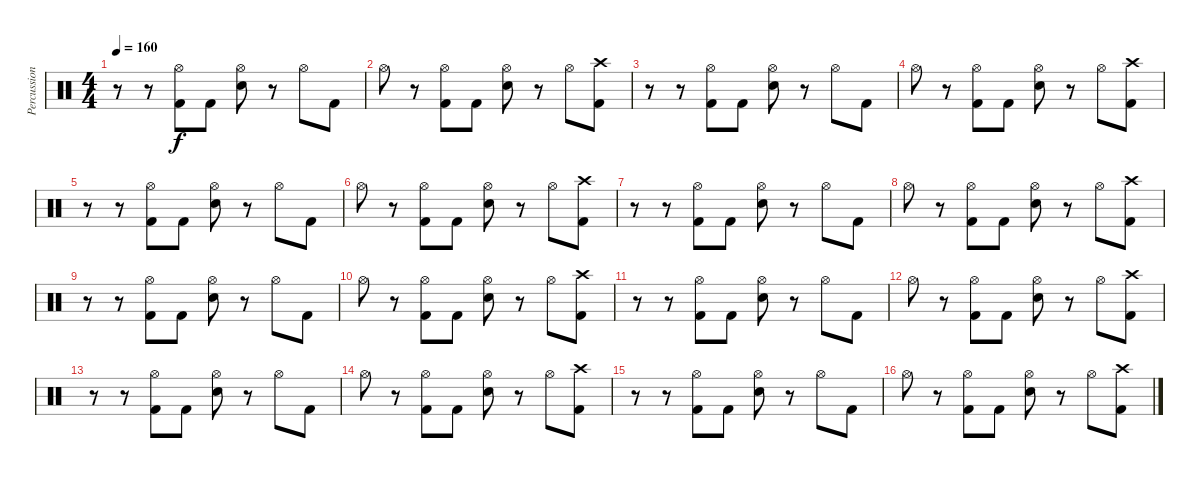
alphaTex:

\track ("Percussion" "Percussion") {instrument percussion}
\staff {score}
\articulation defaults
\ts (4 4)
\tempo 160
\clef neutral
\ks c
r.8{dy f} r.8 ("Hi-Hat (open)" "Kick (hit) 2").8 "Kick (hit) 2".8 ("Hi-Hat (open)" "Electric Snare (hit)").8 r.8 "Hi-Hat (open)".8 "Kick (hit) 2".8 |
"Hi-Hat (open)".8 r.8 ("Hi-Hat (open)" "Kick (hit) 2").8 "Kick (hit) 2".8 ("Hi-Hat (open)" "Electric Snare (hit)").8 r.8 "Hi-Hat (open)".8 ("Crash high (hit)" "Kick (hit) 2").8 |
r.8 r.8 ("Hi-Hat (open)" "Kick (hit) 2").8 "Kick (hit) 2".8 ("Hi-Hat (open)" "Electric Snare (hit)").8 r.8 "Hi-Hat (open)".8 "Kick (hit) 2".8 |
"Hi-Hat (open)".8 r.8 ("Hi-Hat (open)" "Kick (hit) 2").8 "Kick (hit) 2".8 ("Hi-Hat (open)" "Electric Snare (hit)").8 r.8 "Hi-Hat (open)".8 ("Crash high (hit)" "Kick (hit) 2").8 |
r.8 r.8 ("Hi-Hat (open)" "Kick (hit) 2").8 "Kick (hit) 2".8 ("Hi-Hat (open)" "Electric Snare (hit)").8 r.8 "Hi-Hat (open)".8 "Kick (hit) 2".8 |
"Hi-Hat (open)".8 r.8 ("Hi-Hat (open)" "Kick (hit) 2").8 "Kick (hit) 2".8 ("Hi-Hat (open)" "Electric Snare (hit)").8 r.8 "Hi-Hat (open)".8 ("Crash high (hit)" "Kick (hit) 2").8 |
r.8 r.8 ("Hi-Hat (open)" "Kick (hit) 2").8 "Kick (hit) 2".8 ("Hi-Hat (open)" "Electric Snare (hit)").8 r.8 "Hi-Hat (open)".8 "Kick (hit) 2".8 |
"Hi-Hat (open)".8 r.8 ("Hi-Hat (open)" "Kick (hit) 2").8 "Kick (hit) 2".8 ("Hi-Hat (open)" "Electric Snare (hit)").8 r.8 "Hi-Hat (open)".8 ("Crash high (hit)" "Kick (hit) 2").8 |
r.8 r.8 ("Hi-Hat (open)" "Kick (hit) 2").8 "Kick (hit) 2".8 ("Hi-Hat (open)" "Electric Snare (hit)").8 r.8 "Hi-Hat (open)".8 "Kick (hit) 2".8 |
"Hi-Hat (open)".8 r.8 ("Hi-Hat (open)" "Kick (hit) 2").8 "Kick (hit) 2".8 ("Hi-Hat (open)" "Electric Snare (hit)").8 r.8 "Hi-Hat (open)".8 ("Crash high (hit)" "Kick (hit) 2").8 |
r.8 r.8 ("Hi-Hat (open)" "Kick (hit) 2").8 "Kick (hit) 2".8 ("Hi-Hat (open)" "Electric Snare (hit)").8 r.8 "Hi-Hat (open)".8 "Kick (hit) 2".8 |
"Hi-Hat (open)".8 r.8 ("Hi-Hat (open)" "Kick (hit) 2").8 "Kick (hit) 2".8 ("Hi-Hat (open)" "Electric Snare (hit)").8 r.8 "Hi-Hat (open)".8 ("Crash high (hit)" "Kick (hit) 2").8 |
r.8 r.8 ("Hi-Hat (open)" "Kick (hit) 2").8 "Kick (hit) 2".8 ("Hi-Hat (open)" "Electric Snare (hit)").8 r.8 "Hi-Hat (open)".8 "Kick (hit) 2".8 |
"Hi-Hat (open)".8 r.8 ("Hi-Hat (open)" "Kick (hit) 2").8 "Kick (hit) 2".8 ("Hi-Hat (open)" "Electric Snare (hit)").8 r.8 "Hi-Hat (open)".8 ("Crash high (hit)" "Kick (hit) 2").8 |
r.8 r.8 ("Hi-Hat (open)" "Kick (hit) 2").8 "Kick (hit) 2".8 ("Hi-Hat (open)" "Electric Snare (hit)").8 r.8 "Hi-Hat (open)".8 "Kick (hit) 2".8 |
"Hi-Hat (open)".8 r.8 ("Hi-Hat (open)" "Kick (hit) 2").8 "Kick (hit) 2".8 ("Hi-Hat (open)" "Electric Snare (hit)").8 r.8 "Hi-Hat (open)".8 ("Crash high (hit)" "Kick (hit) 2").8
